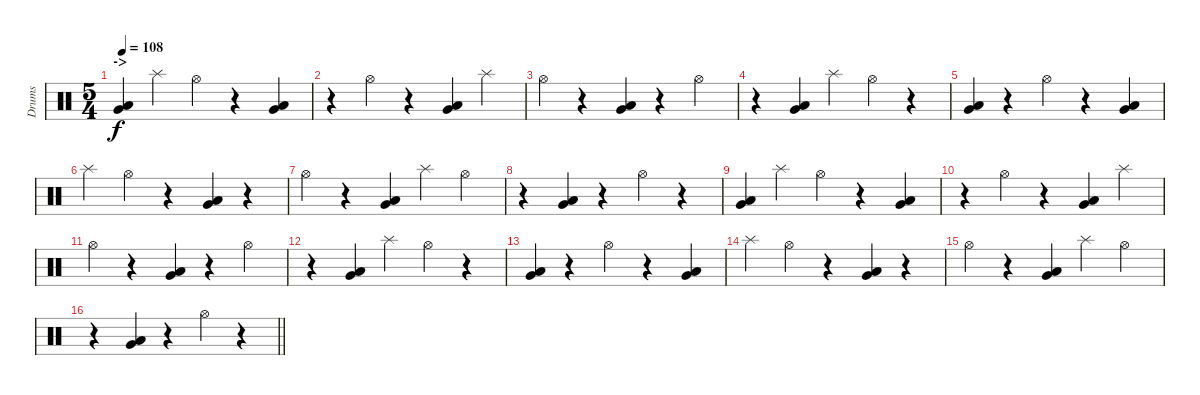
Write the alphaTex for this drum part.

\track ("Drums" "Drums") {instrument percussion}
\staff {score}
\articulation defaults
\ts (5 4)
\section ("" "->")
\tempo 108
\clef neutral
\ks c
("Very Low Tom (hit)" "Low Tom (hit)").4{dy f} "Splash (hit)".4 "Hi-Hat (open)".4 r.4 ("Very Low Tom (hit)" "Low Tom (hit)").4 |
r.4 "Hi-Hat (open)".4 r.4 ("Very Low Tom (hit)" "Low Tom (hit)").4 "Splash (hit)".4 |
"Hi-Hat (open)".4 r.4 ("Very Low Tom (hit)" "Low Tom (hit)").4 r.4 "Hi-Hat (open)".4 |
r.4 ("Very Low Tom (hit)" "Low Tom (hit)").4 "Splash (hit)".4 "Hi-Hat (open)".4 r.4 |
("Very Low Tom (hit)" "Low Tom (hit)").4 r.4 "Hi-Hat (open)".4 r.4 ("Very Low Tom (hit)" "Low Tom (hit)").4 |
"Splash (hit)".4 "Hi-Hat (open)".4 r.4 ("Very Low Tom (hit)" "Low Tom (hit)").4 r.4 |
"Hi-Hat (open)".4 r.4 ("Very Low Tom (hit)" "Low Tom (hit)").4 "Splash (hit)".4 "Hi-Hat (open)".4 |
r.4 ("Very Low Tom (hit)" "Low Tom (hit)").4 r.4 "Hi-Hat (open)".4 r.4 |
("Very Low Tom (hit)" "Low Tom (hit)").4 "Splash (hit)".4 "Hi-Hat (open)".4 r.4 ("Very Low Tom (hit)" "Low Tom (hit)").4 |
r.4 "Hi-Hat (open)".4 r.4 ("Very Low Tom (hit)" "Low Tom (hit)").4 "Splash (hit)".4 |
"Hi-Hat (open)".4 r.4 ("Very Low Tom (hit)" "Low Tom (hit)").4 r.4 "Hi-Hat (open)".4 |
r.4 ("Very Low Tom (hit)" "Low Tom (hit)").4 "Splash (hit)".4 "Hi-Hat (open)".4 r.4 |
("Very Low Tom (hit)" "Low Tom (hit)").4 r.4 "Hi-Hat (open)".4 r.4 ("Very Low Tom (hit)" "Low Tom (hit)").4 |
"Splash (hit)".4 "Hi-Hat (open)".4 r.4 ("Very Low Tom (hit)" "Low Tom (hit)").4 r.4 |
"Hi-Hat (open)".4 r.4 ("Very Low Tom (hit)" "Low Tom (hit)").4 "Splash (hit)".4 "Hi-Hat (open)".4 |
\barLineRight lightlight
r.4 ("Very Low Tom (hit)" "Low Tom (hit)").4 r.4 "Hi-Hat (open)".4 r.4
